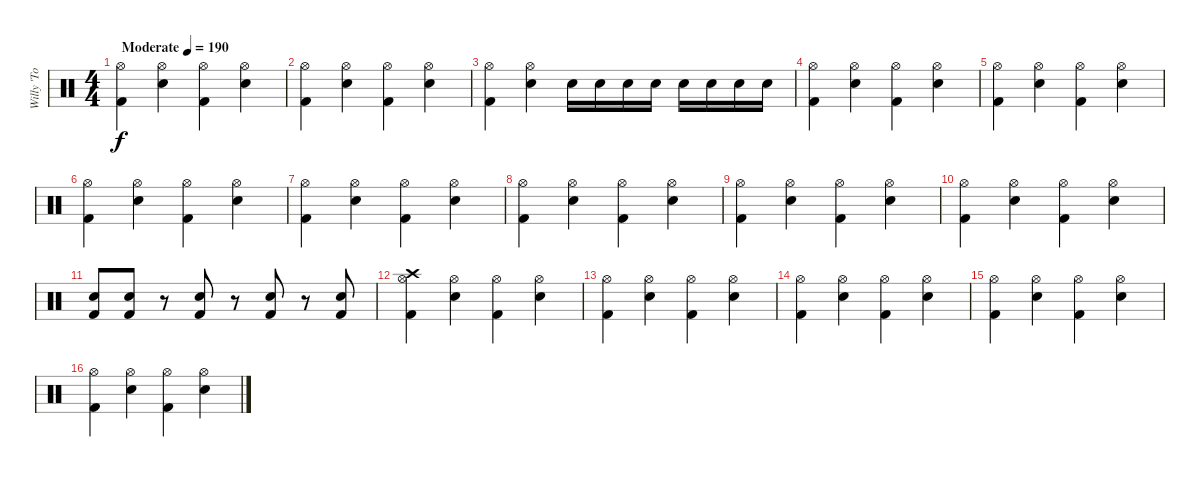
\track ("Willy 'To Big' Hall" "Willy 'To ") {instrument percussion}
\staff {score}
\articulation defaults
\ts (4 4)
\tempo (190 "Moderate")
\clef neutral
\ks c
("Hi-Hat (open)" "Kick (hit) 2").4{dy f} ("Hi-Hat (open)" "Snare (hit) 2").4 ("Hi-Hat (open)" "Kick (hit) 2").4 ("Hi-Hat (open)" "Snare (hit) 2").4 |
("Hi-Hat (open)" "Kick (hit) 2").4 ("Hi-Hat (open)" "Snare (hit) 2").4 ("Hi-Hat (open)" "Kick (hit) 2").4 ("Hi-Hat (open)" "Snare (hit) 2").4 |
("Hi-Hat (open)" "Kick (hit) 2").4 ("Hi-Hat (open)" "Snare (hit) 2").4 "Snare (hit) 2".16 "Snare (hit) 2".16 "Snare (hit) 2".16 "Snare (hit) 2".16 "Snare (hit) 2".16 "Snare (hit) 2".16 "Snare (hit) 2".16 "Snare (hit) 2".16 |
("Hi-Hat (open)" "Kick (hit) 2").4 ("Hi-Hat (open)" "Snare (hit) 2").4 ("Hi-Hat (open)" "Kick (hit) 2").4 ("Hi-Hat (open)" "Snare (hit) 2").4 |
("Hi-Hat (open)" "Kick (hit) 2").4 ("Hi-Hat (open)" "Snare (hit) 2").4 ("Hi-Hat (open)" "Kick (hit) 2").4 ("Hi-Hat (open)" "Snare (hit) 2").4 |
("Hi-Hat (open)" "Kick (hit) 2").4 ("Hi-Hat (open)" "Snare (hit) 2").4 ("Hi-Hat (open)" "Kick (hit) 2").4 ("Hi-Hat (open)" "Snare (hit) 2").4 |
("Hi-Hat (open)" "Kick (hit) 2").4 ("Hi-Hat (open)" "Snare (hit) 2").4 ("Hi-Hat (open)" "Kick (hit) 2").4 ("Hi-Hat (open)" "Snare (hit) 2").4 |
("Hi-Hat (open)" "Kick (hit) 2").4 ("Hi-Hat (open)" "Snare (hit) 2").4 ("Hi-Hat (open)" "Kick (hit) 2").4 ("Hi-Hat (open)" "Snare (hit) 2").4 |
("Hi-Hat (open)" "Kick (hit) 2").4 ("Hi-Hat (open)" "Snare (hit) 2").4 ("Hi-Hat (open)" "Kick (hit) 2").4 ("Hi-Hat (open)" "Snare (hit) 2").4 |
("Hi-Hat (open)" "Kick (hit) 2").4 ("Hi-Hat (open)" "Snare (hit) 2").4 ("Hi-Hat (open)" "Kick (hit) 2").4 ("Hi-Hat (open)" "Snare (hit) 2").4 |
("Snare (hit) 2" "Kick (hit) 2").8 ("Kick (hit) 2" "Snare (hit) 2").8 r.8 ("Snare (hit) 2" "Kick (hit) 2").8 r.8 ("Snare (hit) 2" "Kick (hit) 2").8 r.8 ("Snare (hit) 2" "Kick (hit) 2").8 |
("Hi-Hat (open)" "Kick (hit) 2" "Crash high (hit)").4 ("Hi-Hat (open)" "Snare (hit) 2").4 ("Hi-Hat (open)" "Kick (hit) 2").4 ("Hi-Hat (open)" "Snare (hit) 2").4 |
("Hi-Hat (open)" "Kick (hit) 2").4 ("Hi-Hat (open)" "Snare (hit) 2").4 ("Hi-Hat (open)" "Kick (hit) 2").4 ("Hi-Hat (open)" "Snare (hit) 2").4 |
("Hi-Hat (open)" "Kick (hit) 2").4 ("Hi-Hat (open)" "Snare (hit) 2").4 ("Hi-Hat (open)" "Kick (hit) 2").4 ("Hi-Hat (open)" "Snare (hit) 2").4 |
("Hi-Hat (open)" "Kick (hit) 2").4 ("Hi-Hat (open)" "Snare (hit) 2").4 ("Hi-Hat (open)" "Kick (hit) 2").4 ("Hi-Hat (open)" "Snare (hit) 2").4 |
("Hi-Hat (open)" "Kick (hit) 2").4 ("Hi-Hat (open)" "Snare (hit) 2").4 ("Hi-Hat (open)" "Kick (hit) 2").4 ("Hi-Hat (open)" "Snare (hit) 2").4
